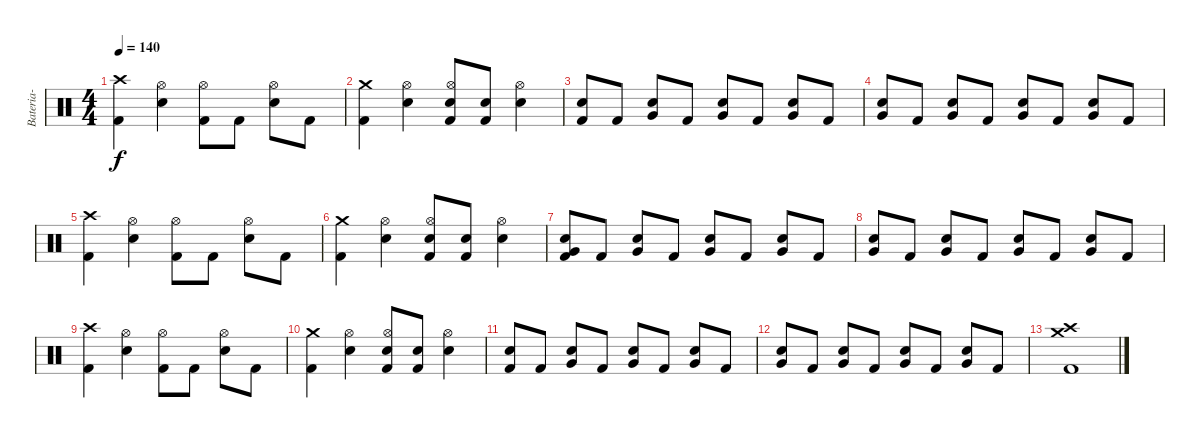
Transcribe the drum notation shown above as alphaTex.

\track ("Bateria-" "Bateria-") {instrument percussion}
\staff {score}
\articulation defaults
\ts (4 4)
\tempo 140
\clef neutral
\ks c
("Crash high (hit)" "Kick (hit) 2").4{dy f} ("Hi-Hat (open)" "Electric Snare (hit)").4 ("Hi-Hat (open)" "Kick (hit) 2").8 "Kick (hit) 2".8 ("Hi-Hat (open)" "Electric Snare (hit)").8 "Kick (hit) 2".8 |
("Crash medium (hit)" "Kick (hit) 2").4 ("Hi-Hat (open)" "Snare (hit) 2").4 ("Hi-Hat (open)" "Kick (hit) 2" "Snare (hit) 2").8 ("Kick (hit) 2" "Snare (hit) 2").8 ("Hi-Hat (open)" "Snare (hit) 2").4 |
("Kick (hit) 2" "Electric Snare (hit)").8 "Kick (hit) 2".8 ("Very Low Tom (hit)" "Electric Snare (hit)").8 "Kick (hit) 2".8 ("Very Low Tom (hit)" "Electric Snare (hit)").8 "Kick (hit) 2".8 ("Very Low Tom (hit)" "Electric Snare (hit)").8 "Kick (hit) 2".8 |
("Very Low Tom (hit)" "Electric Snare (hit)").8 "Kick (hit) 2".8 ("Very Low Tom (hit)" "Electric Snare (hit)").8 "Kick (hit) 2".8 ("Very Low Tom (hit)" "Electric Snare (hit)").8 "Kick (hit) 2".8 ("Very Low Tom (hit)" "Electric Snare (hit)").8 "Kick (hit) 2".8 |
("Crash high (hit)" "Kick (hit) 2").4 ("Hi-Hat (open)" "Electric Snare (hit)").4 ("Hi-Hat (open)" "Kick (hit) 2").8 "Kick (hit) 2".8 ("Hi-Hat (open)" "Electric Snare (hit)").8 "Kick (hit) 2".8 |
("Crash medium (hit)" "Kick (hit) 2").4 ("Hi-Hat (open)" "Snare (hit) 2").4 ("Hi-Hat (open)" "Kick (hit) 2" "Snare (hit) 2").8 ("Kick (hit) 2" "Snare (hit) 2").8 ("Hi-Hat (open)" "Snare (hit) 2").4 |
("Very Low Tom (hit)" "Kick (hit) 2" "Electric Snare (hit)").8 "Kick (hit) 2".8 ("Very Low Tom (hit)" "Electric Snare (hit)").8 "Kick (hit) 2".8 ("Very Low Tom (hit)" "Electric Snare (hit)").8 "Kick (hit) 2".8 ("Very Low Tom (hit)" "Electric Snare (hit)").8 "Kick (hit) 2".8 |
("Very Low Tom (hit)" "Electric Snare (hit)").8 "Kick (hit) 2".8 ("Very Low Tom (hit)" "Electric Snare (hit)").8 "Kick (hit) 2".8 ("Very Low Tom (hit)" "Electric Snare (hit)").8 "Kick (hit) 2".8 ("Very Low Tom (hit)" "Electric Snare (hit)").8 "Kick (hit) 2".8 |
("Crash high (hit)" "Kick (hit) 2").4 ("Hi-Hat (open)" "Electric Snare (hit)").4 ("Hi-Hat (open)" "Kick (hit) 2").8 "Kick (hit) 2".8 ("Hi-Hat (open)" "Electric Snare (hit)").8 "Kick (hit) 2".8 |
("Crash medium (hit)" "Kick (hit) 2").4 ("Hi-Hat (open)" "Snare (hit) 2").4 ("Hi-Hat (open)" "Kick (hit) 2" "Snare (hit) 2").8 ("Kick (hit) 2" "Snare (hit) 2").8 ("Hi-Hat (open)" "Snare (hit) 2").4 |
("Kick (hit) 2" "Electric Snare (hit)").8 "Kick (hit) 2".8 ("Very Low Tom (hit)" "Electric Snare (hit)").8 "Kick (hit) 2".8 ("Very Low Tom (hit)" "Electric Snare (hit)").8 "Kick (hit) 2".8 ("Very Low Tom (hit)" "Electric Snare (hit)").8 "Kick (hit) 2".8 |
("Very Low Tom (hit)" "Electric Snare (hit)").8 "Kick (hit) 2".8 ("Very Low Tom (hit)" "Electric Snare (hit)").8 "Kick (hit) 2".8 ("Very Low Tom (hit)" "Electric Snare (hit)").8 "Kick (hit) 2".8 ("Very Low Tom (hit)" "Electric Snare (hit)").8 "Kick (hit) 2".8 |
("Crash high (hit)" "Crash medium (hit)" "Kick (hit) 2").1
